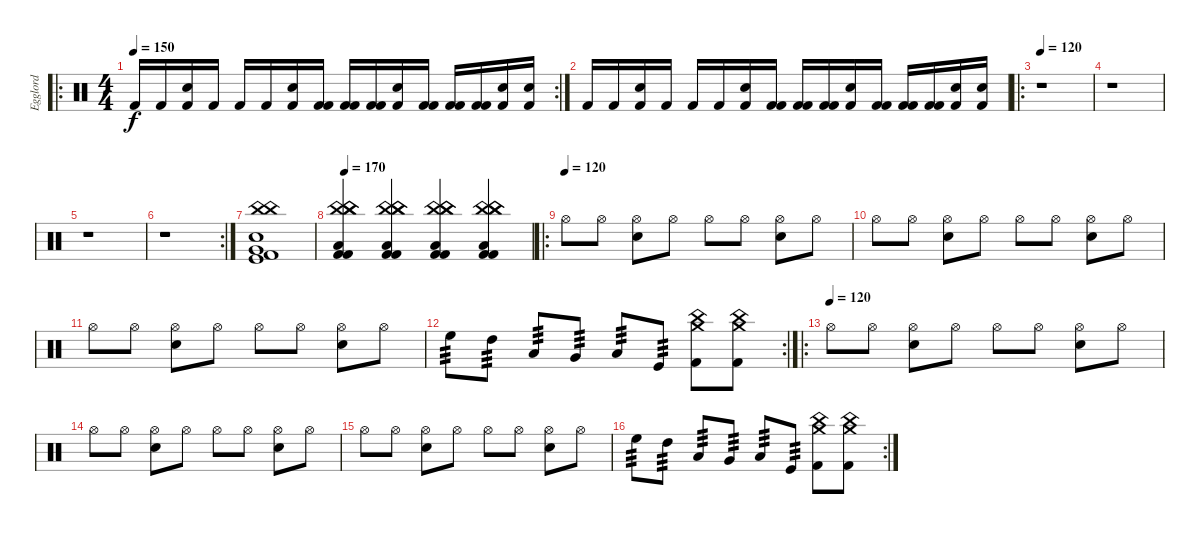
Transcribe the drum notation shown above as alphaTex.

\track ("Egglord" "Egglord") {instrument percussion}
\staff {score}
\articulation defaults
\ro
\rc 2
\ts (4 4)
\tempo 150
\clef neutral
\ks c "Kick (hit) 2".16{dy f} "Kick (hit) 2".16
("Electric Snare (hit)" "Kick (hit) 2").16 "Kick (hit) 2".16 "Kick (hit) 2".16 "Kick (hit) 2".16 ("Electric Snare (hit)" "Kick (hit) 2").16 ("Kick (hit) 2" "Kick (hit) 2").16 ("Kick (hit) 2" "Kick (hit) 2").16 ("Kick (hit) 2" "Kick (hit) 2").16 ("Electric Snare (hit)" "Kick (hit) 2").16 ("Kick (hit) 2" "Kick (hit) 2").16 ("Kick (hit) 2" "Kick (hit) 2").16 ("Kick (hit) 2" "Kick (hit) 2").16 ("Electric Snare (hit)" "Kick (hit) 2").16 ("Electric Snare (hit)" "Kick (hit) 2").16 |
"Kick (hit) 2".16 "Kick (hit) 2".16 ("Electric Snare (hit)" "Kick (hit) 2").16 "Kick (hit) 2".16 "Kick (hit) 2".16 "Kick (hit) 2".16 ("Electric Snare (hit)" "Kick (hit) 2").16 ("Kick (hit) 2" "Kick (hit) 2").16 ("Kick (hit) 2" "Kick (hit) 2").16 ("Kick (hit) 2" "Kick (hit) 2").16 ("Electric Snare (hit)" "Kick (hit) 2").16 ("Kick (hit) 2" "Kick (hit) 2").16 ("Kick (hit) 2" "Kick (hit) 2").16 ("Kick (hit) 2" "Kick (hit) 2").16 ("Electric Snare (hit)" "Kick (hit) 2").16 ("Electric Snare (hit)" "Kick (hit) 2").16 |
\ro
\tempo 120
r.1 |
r.1 |
r.1 |
\rc 2
r.1 |
("China (hit)" "China (hit)" "Very Low Tom (hit)" "Kick (hit)" "Electric Snare (hit)" "Kick (hit) 2").1 |
\tempo 170
("China (hit)" "China (hit)" "Kick (hit) 2" "China (hit)" "Kick (hit) 2" "Low Floor Tom (hit)").4 ("China (hit)" "China (hit)" "Kick (hit) 2" "China (hit)" "Kick (hit) 2" "Low Floor Tom (hit)").4 ("China (hit)" "China (hit)" "Kick (hit) 2" "China (hit)" "Kick (hit) 2" "Low Floor Tom (hit)").4 ("China (hit)" "China (hit)" "Kick (hit) 2" "China (hit)" "Kick (hit) 2" "Low Floor Tom (hit)").4 |
\ro
\tempo (120)
"Hi-Hat (open)".8 "Hi-Hat (open)".8 ("Hi-Hat (open)" "Electric Snare (hit)").8 "Hi-Hat (open)".8 "Hi-Hat (open)".8 "Hi-Hat (open)".8 ("Hi-Hat (open)" "Electric Snare (hit)").8 "Hi-Hat (open)".8 |
"Hi-Hat (open)".8 "Hi-Hat (open)".8 ("Hi-Hat (open)" "Electric Snare (hit)").8 "Hi-Hat (open)".8 "Hi-Hat (open)".8 "Hi-Hat (open)".8 ("Hi-Hat (open)" "Electric Snare (hit)").8 "Hi-Hat (open)".8 |
"Hi-Hat (open)".8 "Hi-Hat (open)".8 ("Hi-Hat (open)" "Electric Snare (hit)").8 "Hi-Hat (open)".8 "Hi-Hat (open)".8 "Hi-Hat (open)".8 ("Hi-Hat (open)" "Electric Snare (hit)").8 "Hi-Hat (open)".8 |
\rc 2 "High Floor Tom (hit)".8{tp 3} "High Tom (hit)".8{tp 3} "Low Tom (hit)".8{tp 3} "Very Low Tom (hit)".8{tp 3} "Low Floor Tom (hit)".8{tp 3} "Kick (hit)".8{tp 3}
("China (hit)" "Crash medium (hit)" "Kick (hit) 2").8 ("China (hit)" "Crash medium (hit)" "Kick (hit) 2").8 |
\ro
\tempo (120)
"Hi-Hat (open)".8 "Hi-Hat (open)".8 ("Hi-Hat (open)" "Electric Snare (hit)").8 "Hi-Hat (open)".8 "Hi-Hat (open)".8 "Hi-Hat (open)".8 ("Hi-Hat (open)" "Electric Snare (hit)").8 "Hi-Hat (open)".8 |
"Hi-Hat (open)".8 "Hi-Hat (open)".8 ("Hi-Hat (open)" "Electric Snare (hit)").8 "Hi-Hat (open)".8 "Hi-Hat (open)".8 "Hi-Hat (open)".8 ("Hi-Hat (open)" "Electric Snare (hit)").8 "Hi-Hat (open)".8 |
"Hi-Hat (open)".8 "Hi-Hat (open)".8 ("Hi-Hat (open)" "Electric Snare (hit)").8 "Hi-Hat (open)".8 "Hi-Hat (open)".8 "Hi-Hat (open)".8 ("Hi-Hat (open)" "Electric Snare (hit)").8 "Hi-Hat (open)".8 |
\rc 2 "High Floor Tom (hit)".8{tp 3} "High Tom (hit)".8{tp 3} "Low Tom (hit)".8{tp 3} "Very Low Tom (hit)".8{tp 3} "Low Floor Tom (hit)".8{tp 3} "Kick (hit)".8{tp 3}
("China (hit)" "Crash medium (hit)" "Kick (hit) 2").8 ("China (hit)" "Crash medium (hit)" "Kick (hit) 2").8
